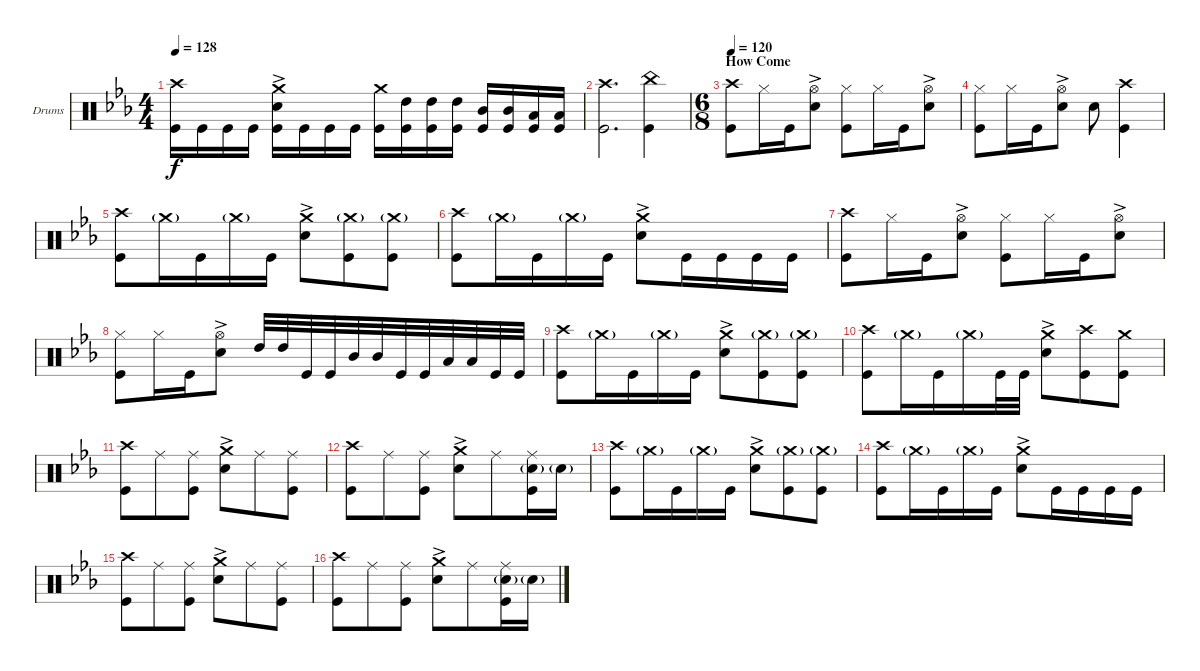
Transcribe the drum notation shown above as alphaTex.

\bracketExtendMode groupsimilarinstruments
\firstSystemTrackNameOrientation horizontal
\otherSystemsTrackNameOrientation horizontal
\track ("Drumkit" "Drums") {instrument percussion}
\staff {score}
\articulation defaults
\ts (4 4)
\tempo 128
\clef neutral
\ks cminor
("Kick (hit)" "Crash high (hit)").16{dy f} "Kick (hit)".16 "Kick (hit)".16 "Kick (hit)".16 ("Kick (hit)" "Snare (hit) 2"{ac} "Crash medium (hit)").16 "Kick (hit)".16 "Kick (hit)".16 "Kick (hit)".16 ("Kick (hit)" "Crash medium (hit)").16 ("Kick (hit)" "High Tom (hit)").16 ("Kick (hit)" "High Tom (hit)").16 ("Kick (hit)" "High Tom (hit)").16 ("Kick (hit)" "Mid Tom (hit)").16 ("Kick (hit)" "Mid Tom (hit)").16 ("Kick (hit)" "Low Tom (hit)").16 ("Kick (hit)" "Low Tom (hit)").16 |
("Kick (hit)" "Crash high (hit)").2{d} ("Kick (hit)" "China (hit)").4 |
\ts (6 8)
\section ("" "How Come")
\tempo 120
("Kick (hit)" "Crash high (hit)").8 "Hi-Hat (closed)".16 "Kick (hit)".16 ("Hi-Hat (open)" "Snare (hit) 2"{ac}).8 ("Kick (hit)" "Hi-Hat (closed)").8 "Hi-Hat (closed)".16 "Kick (hit)".16 ("Hi-Hat (open)" "Snare (hit) 2"{ac}).8 |
("Kick (hit)" "Hi-Hat (closed)").8 "Hi-Hat (closed)".16 "Kick (hit)".16 ("Hi-Hat (open)" "Snare (hit) 2"{ac}).8 "Snare (hit) 2".8 ("Kick (hit)" "Crash high (hit)").4 |
("Kick (hit)" "Crash high (hit)").8 "Crash medium (hit)"{g}.16 "Kick (hit)".16 "Crash medium (hit)"{g}.16 "Kick (hit)".16 ("Snare (hit) 2"{ac} "Crash medium (hit)").8 ("Kick (hit)" "Crash medium (hit)"{g}).8 ("Kick (hit)" "Crash medium (hit)"{g}).8 |
("Kick (hit)" "Crash high (hit)").8 "Crash medium (hit)"{g}.16 "Kick (hit)".16 "Crash medium (hit)"{g}.16 "Kick (hit)".16 ("Snare (hit) 2"{ac} "Crash medium (hit)").8 "Kick (hit)".16 "Kick (hit)".16 "Kick (hit)".16 "Kick (hit)".16 |
("Kick (hit)" "Crash high (hit)").8 "Hi-Hat (closed)".16 "Kick (hit)".16 ("Hi-Hat (open)" "Snare (hit) 2"{ac}).8 ("Kick (hit)" "Hi-Hat (closed)").8 "Hi-Hat (closed)".16 "Kick (hit)".16 ("Hi-Hat (open)" "Snare (hit) 2"{ac}).8 |
("Kick (hit)" "Hi-Hat (closed)").8 "Hi-Hat (closed)".16 "Kick (hit)".16 ("Hi-Hat (open)" "Snare (hit) 2"{ac}).8 "High Tom (hit)".32 "High Tom (hit)".32 "Kick (hit)".32 "Kick (hit)".32 "Mid Tom (hit)".32 "Mid Tom (hit)".32 "Kick (hit)".32 "Kick (hit)".32 "Low Tom (hit)".32 "Low Tom (hit)".32 "Kick (hit)".32 "Kick (hit)".32 |
("Kick (hit)" "Crash high (hit)").8 "Crash medium (hit)"{g}.16 "Kick (hit)".16 "Crash medium (hit)"{g}.16 "Kick (hit)".16 ("Snare (hit) 2"{ac} "Crash medium (hit)").8 ("Kick (hit)" "Crash medium (hit)"{g}).8 ("Kick (hit)" "Crash medium (hit)"{g}).8 |
("Kick (hit)" "Crash high (hit)").8 "Crash medium (hit)"{g}.16 "Kick (hit)".16 "Crash medium (hit)"{g}.16 "Kick (hit)".32 "Kick (hit)".32 ("Snare (hit) 2"{ac} "Crash medium (hit)").8 ("Kick (hit)" "Crash high (hit)").8 ("Kick (hit)" "Crash medium (hit)").8 |
("Crash high (hit)" "Kick (hit)").8 "Ride (middle)".8 ("Kick (hit)" "Ride (middle)").8 ("Snare (hit) 2"{ac} "Crash medium (hit)").8 "Ride (middle)".8 ("Kick (hit)" "Ride (middle)").8 |
("Crash high (hit)" "Kick (hit)").8 "Ride (middle)".8 ("Kick (hit)" "Ride (middle)").8 ("Snare (hit) 2"{ac} "Crash medium (hit)").8 "Ride (middle)".8 ("Kick (hit)" "Ride (middle)" "Snare (hit) 2"{g}).16 "Snare (hit) 2"{g}.16 |
("Kick (hit)" "Crash high (hit)").8 "Crash medium (hit)"{g}.16 "Kick (hit)".16 "Crash medium (hit)"{g}.16 "Kick (hit)".16 ("Snare (hit) 2"{ac} "Crash medium (hit)").8 ("Kick (hit)" "Crash medium (hit)"{g}).8 ("Kick (hit)" "Crash medium (hit)"{g}).8 |
("Kick (hit)" "Crash high (hit)").8 "Crash medium (hit)"{g}.16 "Kick (hit)".16 "Crash medium (hit)"{g}.16 "Kick (hit)".16 ("Snare (hit) 2"{ac} "Crash medium (hit)").8 "Kick (hit)".16 "Kick (hit)".16 "Kick (hit)".16 "Kick (hit)".16 |
("Crash high (hit)" "Kick (hit)").8 "Ride (middle)".8 ("Kick (hit)" "Ride (middle)").8 ("Snare (hit) 2"{ac} "Crash medium (hit)").8 "Ride (middle)".8 ("Kick (hit)" "Ride (middle)").8 |
("Crash high (hit)" "Kick (hit)").8 "Ride (middle)".8 ("Kick (hit)" "Ride (middle)").8 ("Snare (hit) 2"{ac} "Crash medium (hit)").8 "Ride (middle)".8 ("Kick (hit)" "Ride (middle)" "Snare (hit) 2"{g}).16 "Snare (hit) 2"{g}.16
